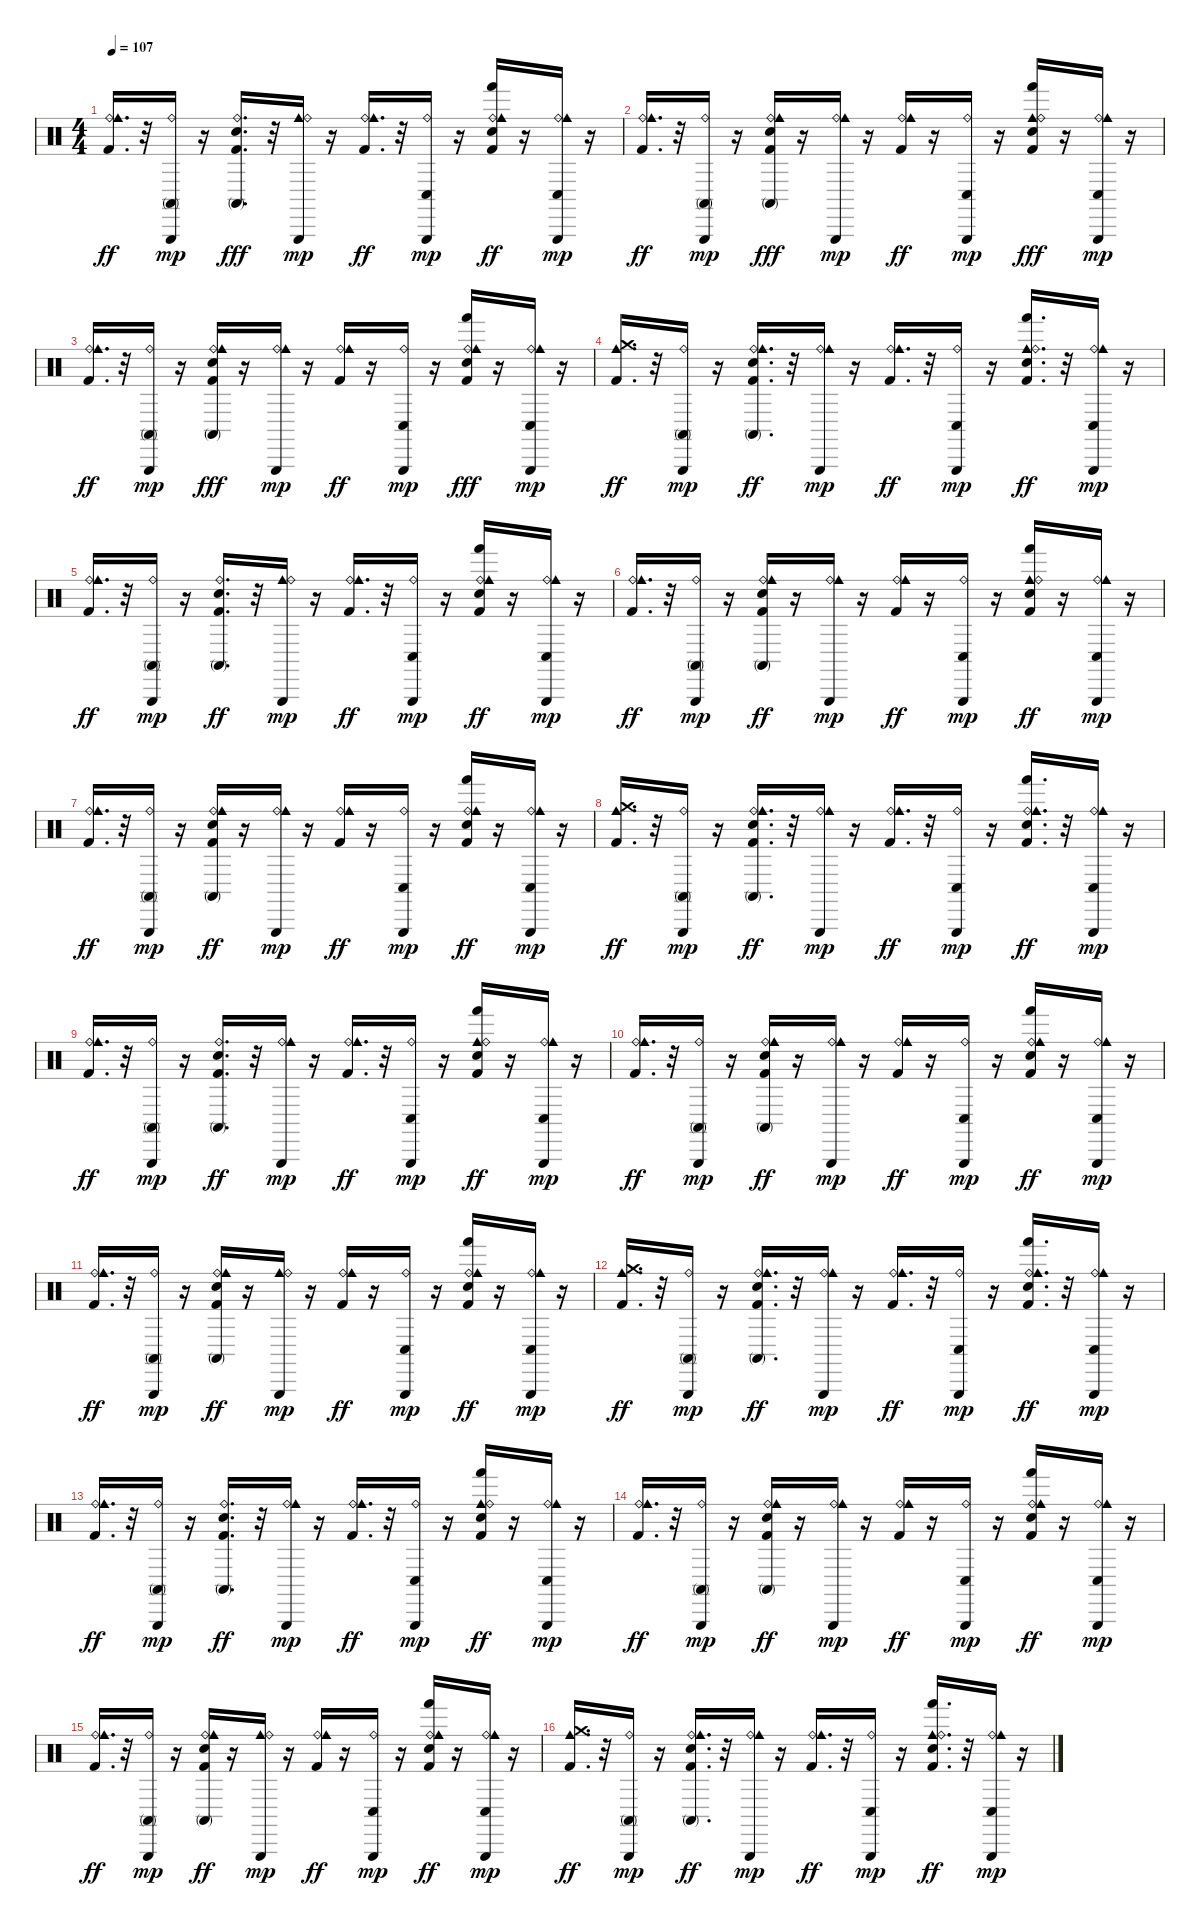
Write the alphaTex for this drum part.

\track "" {instrument percussion}
\staff {score}
\articulation defaults
\ts (4 4)
\tempo 107
\clef neutral
\ks c
("Kick (hit) 2" "Ride (bell)" "Cowbell medium (hit)").16{d dy ff} r.32 ("Ride (bell)" "Conga high (mute)" "Triangle (hit)").16{dy mp} r.16 ("Kick (hit) 2" "Electric Snare (hit)" "Ride (bell)" "Conga high (mute)").16{d dy fff} r.32 ("Cowbell medium (hit)" "Ride (bell)" "Triangle (hit)").16{dy mp} r.16 ("Kick (hit) 2" "Ride (bell)" "Cowbell medium (hit)").16{d dy ff} r.32 ("Ride (bell)" "Conga low (hit)" "Triangle (hit)").16{dy mp} r.16 ("Electric Snare (hit)" "Kick (hit) 2" "Ride (bell)" "Cowbell medium (hit)" "Hand (hit)").16{dy ff} r.16 ("Ride (bell)" "Cowbell medium (hit)" "Conga low (hit)" "Triangle (hit)").16{dy mp} r.16 |
("Kick (hit) 2" "Ride (bell)" "Cowbell medium (hit)").16{d dy ff} r.32 ("Ride (bell)" "Conga high (mute)" "Triangle (hit)").16{dy mp} r.16 ("Kick (hit) 2" "Electric Snare (hit)" "Ride (bell)" "Cowbell medium (hit)" "Conga high (mute)").16{dy fff} r.16 ("Ride (bell)" "Cowbell medium (hit)" "Triangle (hit)").16{dy mp} r.16 ("Kick (hit) 2" "Ride (bell)" "Cowbell medium (hit)").16{dy ff} r.16 ("Ride (bell)" "Conga low (hit)" "Triangle (hit)").16{dy mp} r.16 ("Kick (hit) 2" "Electric Snare (hit)" "Cowbell medium (hit)" "Hand (hit)" "Ride (bell)").16{dy fff} r.16 ("Ride (bell)" "Cowbell medium (hit)" "Conga low (hit)" "Triangle (hit)").16{dy mp} r.16 |
("Kick (hit) 2" "Ride (bell)" "Cowbell medium (hit)").16{d dy ff} r.32 ("Ride (bell)" "Conga high (mute)" "Triangle (hit)").16{dy mp} r.16 ("Kick (hit) 2" "Electric Snare (hit)" "Ride (bell)" "Cowbell medium (hit)" "Conga high (mute)").16{dy fff} r.16 ("Ride (bell)" "Cowbell medium (hit)" "Triangle (hit)").16{dy mp} r.16 ("Kick (hit) 2" "Ride (bell)" "Cowbell medium (hit)").16{dy ff} r.16 ("Ride (bell)" "Conga low (hit)" "Triangle (hit)").16{dy mp} r.16 ("Electric Snare (hit)" "Kick (hit) 2" "Ride (bell)" "Cowbell medium (hit)" "Hand (hit)").16{dy fff} r.16 ("Ride (bell)" "Cowbell medium (hit)" "Conga low (hit)" "Triangle (hit)").16{dy mp} r.16 |
("Kick (hit) 2" "Cowbell medium (hit)" "Crash medium (hit)").16{d dy ff} r.32 ("Ride (bell)" "Conga high (mute)" "Triangle (hit)").16{dy mp} r.16 ("Kick (hit) 2" "Electric Snare (hit)" "Ride (bell)" "Cowbell medium (hit)" "Conga high (mute)").16{d dy ff} r.32 ("Ride (bell)" "Cowbell medium (hit)" "Triangle (hit)").16{dy mp} r.16 ("Kick (hit) 2" "Ride (bell)" "Cowbell medium (hit)").16{d dy ff} r.32 ("Ride (bell)" "Conga low (hit)" "Triangle (hit)").16{dy mp} r.16 ("Kick (hit) 2" "Electric Snare (hit)" "Cowbell medium (hit)" "Hand (hit)" "Ride (bell)").16{d dy ff} r.32 ("Ride (bell)" "Cowbell medium (hit)" "Conga low (hit)" "Triangle (hit)").16{dy mp} r.16 |
("Kick (hit) 2" "Ride (bell)" "Cowbell medium (hit)").16{d dy ff} r.32 ("Ride (bell)" "Conga high (mute)" "Triangle (hit)").16{dy mp} r.16 ("Kick (hit) 2" "Electric Snare (hit)" "Ride (bell)" "Conga high (mute)").16{d dy ff} r.32 ("Cowbell medium (hit)" "Ride (bell)" "Triangle (hit)").16{dy mp} r.16 ("Kick (hit) 2" "Ride (bell)" "Cowbell medium (hit)").16{d dy ff} r.32 ("Ride (bell)" "Conga low (hit)" "Triangle (hit)").16{dy mp} r.16 ("Kick (hit) 2" "Electric Snare (hit)" "Ride (bell)" "Cowbell medium (hit)" "Hand (hit)").16{dy ff} r.16 ("Ride (bell)" "Cowbell medium (hit)" "Conga low (hit)" "Triangle (hit)").16{dy mp} r.16 |
("Kick (hit) 2" "Ride (bell)" "Cowbell medium (hit)").16{d dy ff} r.32 ("Ride (bell)" "Conga high (mute)" "Triangle (hit)").16{dy mp} r.16 ("Kick (hit) 2" "Electric Snare (hit)" "Ride (bell)" "Cowbell medium (hit)" "Conga high (mute)").16{dy ff} r.16 ("Ride (bell)" "Cowbell medium (hit)" "Triangle (hit)").16{dy mp} r.16 ("Kick (hit) 2" "Ride (bell)" "Cowbell medium (hit)").16{dy ff} r.16 ("Ride (bell)" "Conga low (hit)" "Triangle (hit)").16{dy mp} r.16 ("Kick (hit) 2" "Electric Snare (hit)" "Cowbell medium (hit)" "Hand (hit)" "Ride (bell)").16{dy ff} r.16 ("Ride (bell)" "Cowbell medium (hit)" "Conga low (hit)" "Triangle (hit)").16{dy mp} r.16 |
("Kick (hit) 2" "Ride (bell)" "Cowbell medium (hit)").16{d dy ff} r.32 ("Ride (bell)" "Conga high (mute)" "Triangle (hit)").16{dy mp} r.16 ("Kick (hit) 2" "Electric Snare (hit)" "Ride (bell)" "Cowbell medium (hit)" "Conga high (mute)").16{dy ff} r.16 ("Ride (bell)" "Cowbell medium (hit)" "Triangle (hit)").16{dy mp} r.16 ("Kick (hit) 2" "Ride (bell)" "Cowbell medium (hit)").16{dy ff} r.16 ("Ride (bell)" "Conga low (hit)" "Triangle (hit)").16{dy mp} r.16 ("Kick (hit) 2" "Electric Snare (hit)" "Ride (bell)" "Cowbell medium (hit)" "Hand (hit)").16{dy ff} r.16 ("Ride (bell)" "Cowbell medium (hit)" "Conga low (hit)" "Triangle (hit)").16{dy mp} r.16 |
("Kick (hit) 2" "Cowbell medium (hit)" "Crash medium (hit)").16{d dy ff} r.32 ("Ride (bell)" "Conga high (mute)" "Triangle (hit)").16{dy mp} r.16 ("Electric Snare (hit)" "Kick (hit) 2" "Ride (bell)" "Cowbell medium (hit)" "Conga high (mute)").16{d dy ff} r.32 ("Ride (bell)" "Cowbell medium (hit)" "Triangle (hit)").16{dy mp} r.16 ("Kick (hit) 2" "Ride (bell)" "Cowbell medium (hit)").16{d dy ff} r.32 ("Ride (bell)" "Conga low (hit)" "Triangle (hit)").16{dy mp} r.16 ("Kick (hit) 2" "Electric Snare (hit)" "Ride (bell)" "Cowbell medium (hit)" "Hand (hit)").16{d dy ff} r.32 ("Ride (bell)" "Cowbell medium (hit)" "Conga low (hit)" "Triangle (hit)").16{dy mp} r.16 |
("Kick (hit) 2" "Ride (bell)" "Cowbell medium (hit)").16{d dy ff} r.32 ("Ride (bell)" "Conga high (mute)" "Triangle (hit)").16{dy mp} r.16 ("Kick (hit) 2" "Electric Snare (hit)" "Ride (bell)" "Conga high (mute)").16{d dy ff} r.32 ("Ride (bell)" "Cowbell medium (hit)" "Triangle (hit)").16{dy mp} r.16 ("Kick (hit) 2" "Ride (bell)" "Cowbell medium (hit)").16{d dy ff} r.32 ("Ride (bell)" "Conga low (hit)" "Triangle (hit)").16{dy mp} r.16 ("Kick (hit) 2" "Electric Snare (hit)" "Cowbell medium (hit)" "Hand (hit)" "Ride (bell)").16{dy ff} r.16 ("Ride (bell)" "Cowbell medium (hit)" "Conga low (hit)" "Triangle (hit)").16{dy mp} r.16 |
("Kick (hit) 2" "Ride (bell)" "Cowbell medium (hit)").16{d dy ff} r.32 ("Ride (bell)" "Conga high (mute)" "Triangle (hit)").16{dy mp} r.16 ("Kick (hit) 2" "Electric Snare (hit)" "Ride (bell)" "Cowbell medium (hit)" "Conga high (mute)").16{dy ff} r.16 ("Ride (bell)" "Cowbell medium (hit)" "Triangle (hit)").16{dy mp} r.16 ("Kick (hit) 2" "Ride (bell)" "Cowbell medium (hit)").16{dy ff} r.16 ("Ride (bell)" "Conga low (hit)" "Triangle (hit)").16{dy mp} r.16 ("Kick (hit) 2" "Electric Snare (hit)" "Ride (bell)" "Cowbell medium (hit)" "Hand (hit)").16{dy ff} r.16 ("Ride (bell)" "Cowbell medium (hit)" "Conga low (hit)" "Triangle (hit)").16{dy mp} r.16 |
("Kick (hit) 2" "Ride (bell)" "Cowbell medium (hit)").16{d dy ff} r.32 ("Ride (bell)" "Conga high (mute)" "Triangle (hit)").16{dy mp} r.16 ("Kick (hit) 2" "Electric Snare (hit)" "Ride (bell)" "Cowbell medium (hit)" "Conga high (mute)").16{dy ff} r.16 ("Cowbell medium (hit)" "Ride (bell)" "Triangle (hit)").16{dy mp} r.16 ("Kick (hit) 2" "Ride (bell)" "Cowbell medium (hit)").16{dy ff} r.16 ("Ride (bell)" "Conga low (hit)" "Triangle (hit)").16{dy mp} r.16 ("Electric Snare (hit)" "Kick (hit) 2" "Ride (bell)" "Cowbell medium (hit)" "Hand (hit)").16{dy ff} r.16 ("Ride (bell)" "Cowbell medium (hit)" "Conga low (hit)" "Triangle (hit)").16{dy mp} r.16 |
("Kick (hit) 2" "Cowbell medium (hit)" "Crash medium (hit)").16{d dy ff} r.32 ("Ride (bell)" "Conga high (mute)" "Triangle (hit)").16{dy mp} r.16 ("Electric Snare (hit)" "Kick (hit) 2" "Ride (bell)" "Cowbell medium (hit)" "Conga high (mute)").16{d dy ff} r.32 ("Ride (bell)" "Cowbell medium (hit)" "Triangle (hit)").16{dy mp} r.16 ("Kick (hit) 2" "Ride (bell)" "Cowbell medium (hit)").16{d dy ff} r.32 ("Ride (bell)" "Conga low (hit)" "Triangle (hit)").16{dy mp} r.16 ("Kick (hit) 2" "Electric Snare (hit)" "Ride (bell)" "Cowbell medium (hit)" "Hand (hit)").16{d dy ff} r.32 ("Ride (bell)" "Cowbell medium (hit)" "Conga low (hit)" "Triangle (hit)").16{dy mp} r.16 |
("Kick (hit) 2" "Ride (bell)" "Cowbell medium (hit)").16{d dy ff} r.32 ("Ride (bell)" "Conga high (mute)" "Triangle (hit)").16{dy mp} r.16 ("Kick (hit) 2" "Electric Snare (hit)" "Ride (bell)" "Conga high (mute)").16{d dy ff} r.32 ("Ride (bell)" "Cowbell medium (hit)" "Triangle (hit)").16{dy mp} r.16 ("Kick (hit) 2" "Ride (bell)" "Cowbell medium (hit)").16{d dy ff} r.32 ("Ride (bell)" "Conga low (hit)" "Triangle (hit)").16{dy mp} r.16 ("Kick (hit) 2" "Electric Snare (hit)" "Cowbell medium (hit)" "Ride (bell)" "Hand (hit)").16{dy ff} r.16 ("Ride (bell)" "Cowbell medium (hit)" "Conga low (hit)" "Triangle (hit)").16{dy mp} r.16 |
("Kick (hit) 2" "Ride (bell)" "Cowbell medium (hit)").16{d dy ff} r.32 ("Ride (bell)" "Conga high (mute)" "Triangle (hit)").16{dy mp} r.16 ("Kick (hit) 2" "Electric Snare (hit)" "Ride (bell)" "Cowbell medium (hit)" "Conga high (mute)").16{dy ff} r.16 ("Ride (bell)" "Cowbell medium (hit)" "Triangle (hit)").16{dy mp} r.16 ("Kick (hit) 2" "Ride (bell)" "Cowbell medium (hit)").16{dy ff} r.16 ("Ride (bell)" "Conga low (hit)" "Triangle (hit)").16{dy mp} r.16 ("Kick (hit) 2" "Electric Snare (hit)" "Ride (bell)" "Cowbell medium (hit)" "Hand (hit)").16{dy ff} r.16 ("Ride (bell)" "Cowbell medium (hit)" "Conga low (hit)" "Triangle (hit)").16{dy mp} r.16 |
("Kick (hit) 2" "Ride (bell)" "Cowbell medium (hit)").16{d dy ff} r.32 ("Ride (bell)" "Conga high (mute)" "Triangle (hit)").16{dy mp} r.16 ("Kick (hit) 2" "Electric Snare (hit)" "Ride (bell)" "Cowbell medium (hit)" "Conga high (mute)").16{dy ff} r.16 ("Cowbell medium (hit)" "Ride (bell)" "Triangle (hit)").16{dy mp} r.16 ("Kick (hit) 2" "Ride (bell)" "Cowbell medium (hit)").16{dy ff} r.16 ("Ride (bell)" "Conga low (hit)" "Triangle (hit)").16{dy mp} r.16 ("Electric Snare (hit)" "Kick (hit) 2" "Ride (bell)" "Cowbell medium (hit)" "Hand (hit)").16{dy ff} r.16 ("Ride (bell)" "Cowbell medium (hit)" "Conga low (hit)" "Triangle (hit)").16{dy mp} r.16 |
("Kick (hit) 2" "Cowbell medium (hit)" "Crash medium (hit)").16{d dy ff} r.32 ("Ride (bell)" "Conga high (mute)" "Triangle (hit)").16{dy mp} r.16 ("Electric Snare (hit)" "Kick (hit) 2" "Ride (bell)" "Cowbell medium (hit)" "Conga high (mute)").16{d dy ff} r.32 ("Ride (bell)" "Cowbell medium (hit)" "Triangle (hit)").16{dy mp} r.16 ("Kick (hit) 2" "Ride (bell)" "Cowbell medium (hit)").16{d dy ff} r.32 ("Ride (bell)" "Conga low (hit)" "Triangle (hit)").16{dy mp} r.16 ("Kick (hit) 2" "Electric Snare (hit)" "Cowbell medium (hit)" "Hand (hit)" "Ride (bell)").16{d dy ff} r.32 ("Ride (bell)" "Cowbell medium (hit)" "Conga low (hit)" "Triangle (hit)").16{dy mp} r.16
